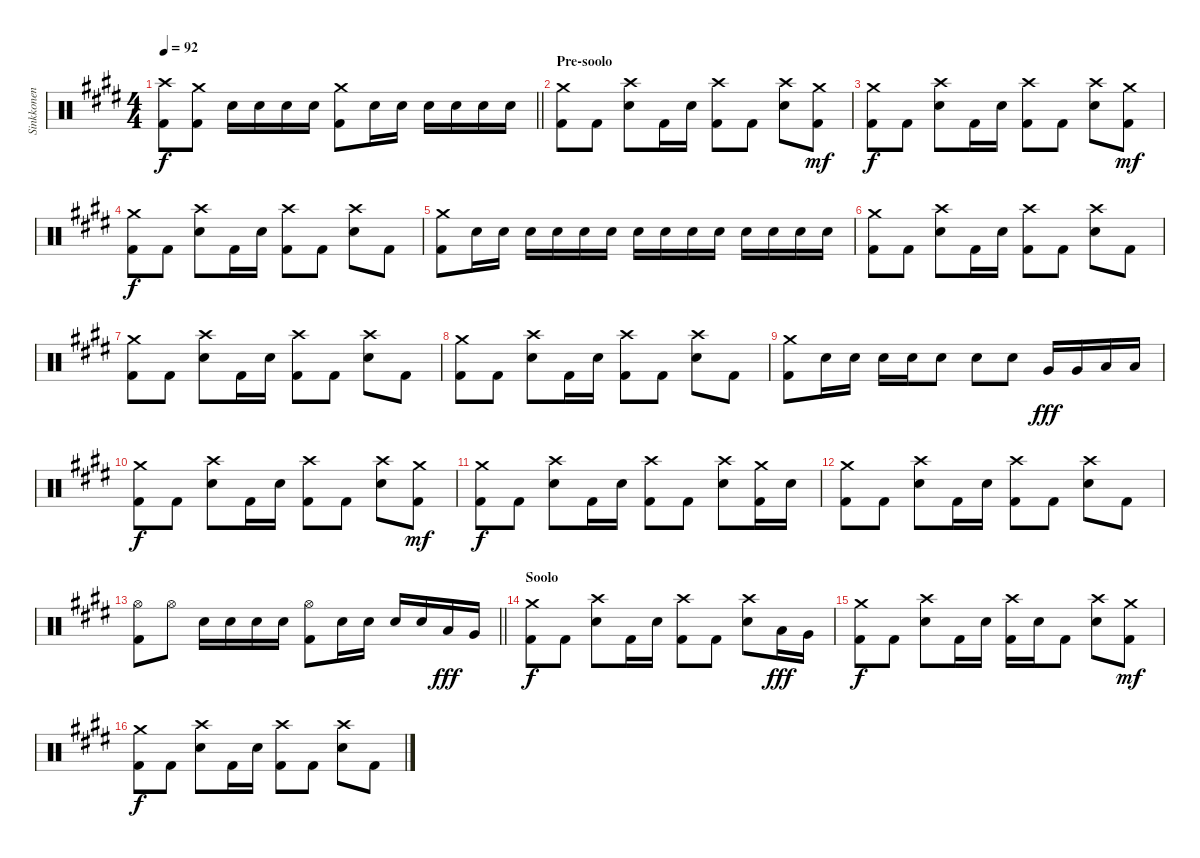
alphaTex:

\track ("Sinkkonen" "Sinkkonen") {instrument percussion}
\staff {score}
\articulation defaults
\ts (4 4)
\tempo 92
\clef neutral
\barLineRight lightlight
\ks c#minor
("Kick (hit) 2" "Crash high (hit)").8{dy f} ("Kick (hit) 2" "Crash medium (hit)").8 "Snare (hit) 2".16 "Snare (hit) 2".16 "Snare (hit) 2".16 "Snare (hit) 2".16 ("Kick (hit) 2" "Crash medium (hit)").8 "Snare (hit) 2".16 "Snare (hit) 2".16 "Snare (hit) 2".16 "Snare (hit) 2".16 "Snare (hit) 2".16 "Snare (hit) 2".16 |
\section ("" "Pre-soolo")
("Kick (hit) 2" "Crash medium (hit)").8 "Kick (hit) 2".8 ("Crash high (hit)" "Snare (hit) 2").8 "Kick (hit) 2".16 "Snare (hit) 2".16 ("Kick (hit) 2" "Crash high (hit)").8 "Kick (hit) 2".8 ("Crash high (hit)" "Snare (hit) 2").8 ("Kick (hit) 2" "Crash medium (hit)").8{dy mf} |
("Kick (hit) 2" "Crash medium (hit)").8{dy f} "Kick (hit) 2".8 ("Crash high (hit)" "Snare (hit) 2").8 "Kick (hit) 2".16 "Snare (hit) 2".16 ("Kick (hit) 2" "Crash high (hit)").8 "Kick (hit) 2".8 ("Crash high (hit)" "Snare (hit) 2").8 ("Kick (hit) 2" "Crash medium (hit)").8{dy mf} |
("Kick (hit) 2" "Crash medium (hit)").8{dy f} "Kick (hit) 2".8 ("Crash high (hit)" "Snare (hit) 2").8 "Kick (hit) 2".16 "Snare (hit) 2".16 ("Kick (hit) 2" "Crash high (hit)").8 "Kick (hit) 2".8 ("Crash high (hit)" "Snare (hit) 2").8 "Kick (hit) 2".8 |
("Kick (hit) 2" "Crash medium (hit)").8 "Snare (hit) 2".16 "Snare (hit) 2".16 "Snare (hit) 2".16 "Snare (hit) 2".16 "Snare (hit) 2".16 "Snare (hit) 2".16 "Snare (hit) 2".16 "Snare (hit) 2".16 "Snare (hit) 2".16 "Snare (hit) 2".16 "Snare (hit) 2".16 "Snare (hit) 2".16 "Snare (hit) 2".16 "Snare (hit) 2".16 |
("Kick (hit) 2" "Crash medium (hit)").8 "Kick (hit) 2".8 ("Crash high (hit)" "Snare (hit) 2").8 "Kick (hit) 2".16 "Snare (hit) 2".16 ("Kick (hit) 2" "Crash high (hit)").8 "Kick (hit) 2".8 ("Crash high (hit)" "Snare (hit) 2").8 "Kick (hit) 2".8 |
("Kick (hit) 2" "Crash medium (hit)").8 "Kick (hit) 2".8 ("Crash high (hit)" "Snare (hit) 2").8 "Kick (hit) 2".16 "Snare (hit) 2".16 ("Kick (hit) 2" "Crash high (hit)").8 "Kick (hit) 2".8 ("Crash high (hit)" "Snare (hit) 2").8 "Kick (hit) 2".8 |
("Kick (hit) 2" "Crash medium (hit)").8 "Kick (hit) 2".8 ("Crash high (hit)" "Snare (hit) 2").8 "Kick (hit) 2".16 "Snare (hit) 2".16 ("Kick (hit) 2" "Crash high (hit)").8 "Kick (hit) 2".8 ("Crash high (hit)" "Snare (hit) 2").8 "Kick (hit) 2".8 |
("Kick (hit) 2" "Crash medium (hit)").8 "Snare (hit) 2".16 "Snare (hit) 2".16 "Snare (hit) 2".16 "Snare (hit) 2".16 "Snare (hit) 2".8 "Snare (hit) 2".8 "Snare (hit) 2".8 "Very Low Tom (hit)".16{dy fff} "Very Low Tom (hit)".16 "Low Floor Tom (hit)".16 "Low Floor Tom (hit)".16 |
("Kick (hit) 2" "Crash medium (hit)").8{dy f} "Kick (hit) 2".8 ("Crash high (hit)" "Snare (hit) 2").8 "Kick (hit) 2".16 "Snare (hit) 2".16 ("Kick (hit) 2" "Crash high (hit)").8 "Kick (hit) 2".8 ("Crash high (hit)" "Snare (hit) 2").8 ("Kick (hit) 2" "Crash medium (hit)").8{dy mf} |
("Kick (hit) 2" "Crash medium (hit)").8{dy f} "Kick (hit) 2".8 ("Crash high (hit)" "Snare (hit) 2").8 "Kick (hit) 2".16 "Snare (hit) 2".16 ("Kick (hit) 2" "Crash high (hit)").8 "Kick (hit) 2".8 ("Crash high (hit)" "Snare (hit) 2").8 ("Kick (hit) 2" "Crash medium (hit)").16 "Snare (hit) 2".16 |
("Kick (hit) 2" "Crash medium (hit)").8 "Kick (hit) 2".8 ("Crash high (hit)" "Snare (hit) 2").8 "Kick (hit) 2".16 "Snare (hit) 2".16 ("Kick (hit) 2" "Crash high (hit)").8 "Kick (hit) 2".8 ("Crash high (hit)" "Snare (hit) 2").8 "Kick (hit) 2".8 |
\barLineRight lightlight
("Kick (hit) 2" "Hi-Hat (open)").8 "Hi-Hat (open)".8 "Snare (hit) 2".16 "Snare (hit) 2".16 "Snare (hit) 2".16 "Snare (hit) 2".16 ("Kick (hit) 2" "Hi-Hat (open)").8 "Snare (hit) 2".16 "Snare (hit) 2".16 "Snare (hit) 2".16 "Snare (hit) 2".16 "Low Tom (hit)".16{dy fff} "Very Low Tom (hit)".16 |
\section ("" "Soolo")
("Kick (hit) 2" "Crash medium (hit)").8{dy f} "Kick (hit) 2".8 ("Crash high (hit)" "Snare (hit) 2").8 "Kick (hit) 2".16 "Snare (hit) 2".16 ("Kick (hit) 2" "Crash high (hit)").8 "Kick (hit) 2".8 ("Crash high (hit)" "Snare (hit) 2").8 "Low Tom (hit)".16{dy fff} "Very Low Tom (hit)".16 |
("Kick (hit) 2" "Crash medium (hit)").8{dy f} "Kick (hit) 2".8 ("Crash high (hit)" "Snare (hit) 2").8 "Kick (hit) 2".16 "Snare (hit) 2".16 ("Kick (hit) 2" "Crash high (hit)").16 "Snare (hit) 2".16 "Kick (hit) 2".8 ("Crash high (hit)" "Snare (hit) 2").8 ("Kick (hit) 2" "Crash medium (hit)").8{dy mf} |
("Kick (hit) 2" "Crash medium (hit)").8{dy f} "Kick (hit) 2".8 ("Crash high (hit)" "Snare (hit) 2").8 "Kick (hit) 2".16 "Snare (hit) 2".16 ("Kick (hit) 2" "Crash high (hit)").8 "Kick (hit) 2".8 ("Crash high (hit)" "Snare (hit) 2").8 "Kick (hit) 2".8
